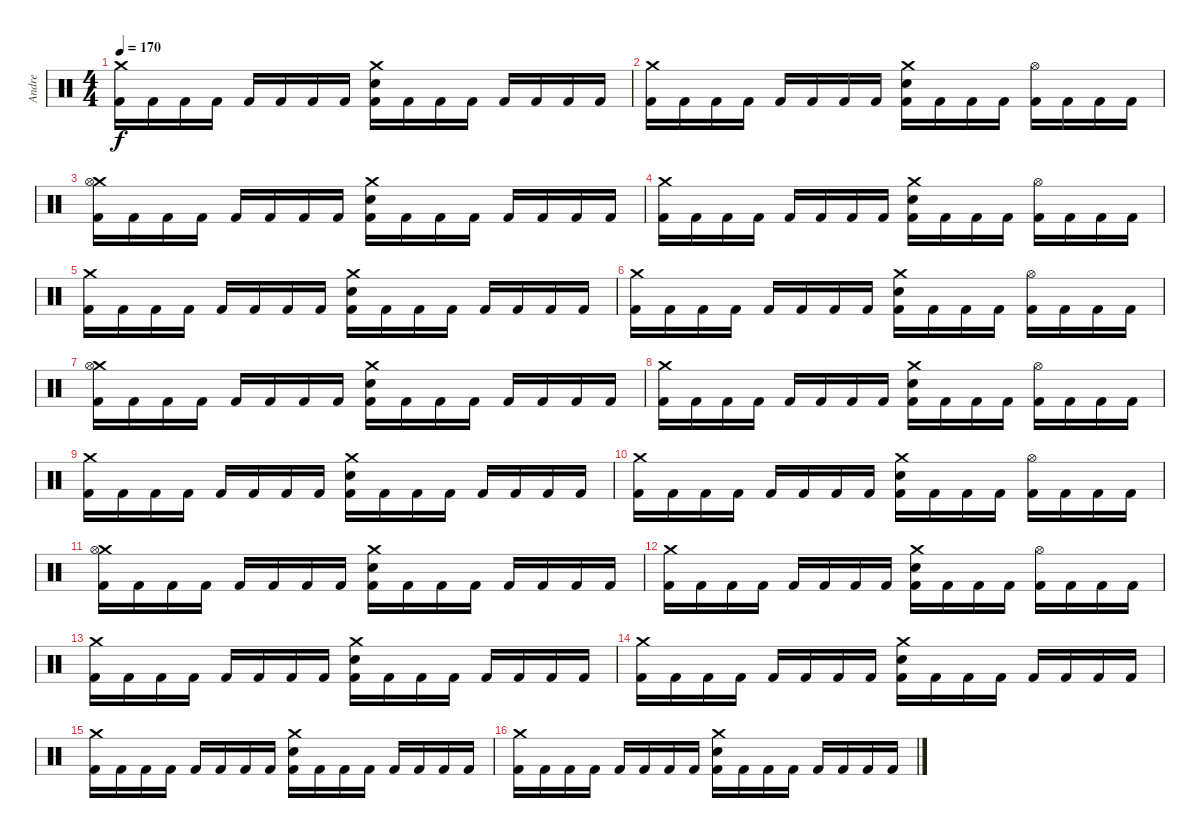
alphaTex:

\track ("Andre" "Andre") {instrument percussion}
\staff {score}
\articulation defaults
\ts (4 4)
\tempo 170
\clef neutral
\ks c
("Crash medium (hit)" "Kick (hit) 2").16{dy f} "Kick (hit) 2".16 "Kick (hit) 2".16 "Kick (hit) 2".16 "Kick (hit) 2".16 "Kick (hit) 2".16 "Kick (hit) 2".16 "Kick (hit) 2".16 ("Crash medium (hit)" "Snare (hit) 2" "Kick (hit) 2").16 "Kick (hit) 2".16 "Kick (hit) 2".16 "Kick (hit) 2".16 "Kick (hit) 2".16 "Kick (hit) 2".16 "Kick (hit) 2".16 "Kick (hit) 2".16 |
("Crash medium (hit)" "Kick (hit) 2").16 "Kick (hit) 2".16 "Kick (hit) 2".16 "Kick (hit) 2".16 "Kick (hit) 2".16 "Kick (hit) 2".16 "Kick (hit) 2".16 "Kick (hit) 2".16 ("Crash medium (hit)" "Snare (hit) 2" "Kick (hit) 2").16 "Kick (hit) 2".16 "Kick (hit) 2".16 "Kick (hit) 2".16 ("Hi-Hat (open)" "Kick (hit) 2").16 "Kick (hit) 2".16 "Kick (hit) 2".16 "Kick (hit) 2".16 |
("Crash medium (hit)" "Hi-Hat (open)" "Kick (hit) 2").16 "Kick (hit) 2".16 "Kick (hit) 2".16 "Kick (hit) 2".16 "Kick (hit) 2".16 "Kick (hit) 2".16 "Kick (hit) 2".16 "Kick (hit) 2".16 ("Crash medium (hit)" "Snare (hit) 2" "Kick (hit) 2").16 "Kick (hit) 2".16 "Kick (hit) 2".16 "Kick (hit) 2".16 "Kick (hit) 2".16 "Kick (hit) 2".16 "Kick (hit) 2".16 "Kick (hit) 2".16 |
("Crash medium (hit)" "Kick (hit) 2").16 "Kick (hit) 2".16 "Kick (hit) 2".16 "Kick (hit) 2".16 "Kick (hit) 2".16 "Kick (hit) 2".16 "Kick (hit) 2".16 "Kick (hit) 2".16 ("Crash medium (hit)" "Snare (hit) 2" "Kick (hit) 2").16 "Kick (hit) 2".16 "Kick (hit) 2".16 "Kick (hit) 2".16 ("Hi-Hat (open)" "Kick (hit) 2").16 "Kick (hit) 2".16 "Kick (hit) 2".16 "Kick (hit) 2".16 |
("Crash medium (hit)" "Kick (hit) 2").16 "Kick (hit) 2".16 "Kick (hit) 2".16 "Kick (hit) 2".16 "Kick (hit) 2".16 "Kick (hit) 2".16 "Kick (hit) 2".16 "Kick (hit) 2".16 ("Crash medium (hit)" "Snare (hit) 2" "Kick (hit) 2").16 "Kick (hit) 2".16 "Kick (hit) 2".16 "Kick (hit) 2".16 "Kick (hit) 2".16 "Kick (hit) 2".16 "Kick (hit) 2".16 "Kick (hit) 2".16 |
("Crash medium (hit)" "Kick (hit) 2").16 "Kick (hit) 2".16 "Kick (hit) 2".16 "Kick (hit) 2".16 "Kick (hit) 2".16 "Kick (hit) 2".16 "Kick (hit) 2".16 "Kick (hit) 2".16 ("Crash medium (hit)" "Snare (hit) 2" "Kick (hit) 2").16 "Kick (hit) 2".16 "Kick (hit) 2".16 "Kick (hit) 2".16 ("Hi-Hat (open)" "Kick (hit) 2").16 "Kick (hit) 2".16 "Kick (hit) 2".16 "Kick (hit) 2".16 |
("Crash medium (hit)" "Hi-Hat (open)" "Kick (hit) 2").16 "Kick (hit) 2".16 "Kick (hit) 2".16 "Kick (hit) 2".16 "Kick (hit) 2".16 "Kick (hit) 2".16 "Kick (hit) 2".16 "Kick (hit) 2".16 ("Crash medium (hit)" "Snare (hit) 2" "Kick (hit) 2").16 "Kick (hit) 2".16 "Kick (hit) 2".16 "Kick (hit) 2".16 "Kick (hit) 2".16 "Kick (hit) 2".16 "Kick (hit) 2".16 "Kick (hit) 2".16 |
("Crash medium (hit)" "Kick (hit) 2").16 "Kick (hit) 2".16 "Kick (hit) 2".16 "Kick (hit) 2".16 "Kick (hit) 2".16 "Kick (hit) 2".16 "Kick (hit) 2".16 "Kick (hit) 2".16 ("Crash medium (hit)" "Snare (hit) 2" "Kick (hit) 2").16 "Kick (hit) 2".16 "Kick (hit) 2".16 "Kick (hit) 2".16 ("Hi-Hat (open)" "Kick (hit) 2").16 "Kick (hit) 2".16 "Kick (hit) 2".16 "Kick (hit) 2".16 |
("Crash medium (hit)" "Kick (hit) 2").16 "Kick (hit) 2".16 "Kick (hit) 2".16 "Kick (hit) 2".16 "Kick (hit) 2".16 "Kick (hit) 2".16 "Kick (hit) 2".16 "Kick (hit) 2".16 ("Crash medium (hit)" "Snare (hit) 2" "Kick (hit) 2").16 "Kick (hit) 2".16 "Kick (hit) 2".16 "Kick (hit) 2".16 "Kick (hit) 2".16 "Kick (hit) 2".16 "Kick (hit) 2".16 "Kick (hit) 2".16 |
("Crash medium (hit)" "Kick (hit) 2").16 "Kick (hit) 2".16 "Kick (hit) 2".16 "Kick (hit) 2".16 "Kick (hit) 2".16 "Kick (hit) 2".16 "Kick (hit) 2".16 "Kick (hit) 2".16 ("Crash medium (hit)" "Snare (hit) 2" "Kick (hit) 2").16 "Kick (hit) 2".16 "Kick (hit) 2".16 "Kick (hit) 2".16 ("Hi-Hat (open)" "Kick (hit) 2").16 "Kick (hit) 2".16 "Kick (hit) 2".16 "Kick (hit) 2".16 |
("Crash medium (hit)" "Hi-Hat (open)" "Kick (hit) 2").16 "Kick (hit) 2".16 "Kick (hit) 2".16 "Kick (hit) 2".16 "Kick (hit) 2".16 "Kick (hit) 2".16 "Kick (hit) 2".16 "Kick (hit) 2".16 ("Crash medium (hit)" "Snare (hit) 2" "Kick (hit) 2").16 "Kick (hit) 2".16 "Kick (hit) 2".16 "Kick (hit) 2".16 "Kick (hit) 2".16 "Kick (hit) 2".16 "Kick (hit) 2".16 "Kick (hit) 2".16 |
("Crash medium (hit)" "Kick (hit) 2").16 "Kick (hit) 2".16 "Kick (hit) 2".16 "Kick (hit) 2".16 "Kick (hit) 2".16 "Kick (hit) 2".16 "Kick (hit) 2".16 "Kick (hit) 2".16 ("Crash medium (hit)" "Snare (hit) 2" "Kick (hit) 2").16 "Kick (hit) 2".16 "Kick (hit) 2".16 "Kick (hit) 2".16 ("Hi-Hat (open)" "Kick (hit) 2").16 "Kick (hit) 2".16 "Kick (hit) 2".16 "Kick (hit) 2".16 |
("Crash medium (hit)" "Kick (hit) 2").16 "Kick (hit) 2".16 "Kick (hit) 2".16 "Kick (hit) 2".16 "Kick (hit) 2".16 "Kick (hit) 2".16 "Kick (hit) 2".16 "Kick (hit) 2".16 ("Crash medium (hit)" "Snare (hit) 2" "Kick (hit) 2").16 "Kick (hit) 2".16 "Kick (hit) 2".16 "Kick (hit) 2".16 "Kick (hit) 2".16 "Kick (hit) 2".16 "Kick (hit) 2".16 "Kick (hit) 2".16 |
("Crash medium (hit)" "Kick (hit) 2").16 "Kick (hit) 2".16 "Kick (hit) 2".16 "Kick (hit) 2".16 "Kick (hit) 2".16 "Kick (hit) 2".16 "Kick (hit) 2".16 "Kick (hit) 2".16 ("Crash medium (hit)" "Snare (hit) 2" "Kick (hit) 2").16 "Kick (hit) 2".16 "Kick (hit) 2".16 "Kick (hit) 2".16 "Kick (hit) 2".16 "Kick (hit) 2".16 "Kick (hit) 2".16 "Kick (hit) 2".16 |
("Crash medium (hit)" "Kick (hit) 2").16 "Kick (hit) 2".16 "Kick (hit) 2".16 "Kick (hit) 2".16 "Kick (hit) 2".16 "Kick (hit) 2".16 "Kick (hit) 2".16 "Kick (hit) 2".16 ("Crash medium (hit)" "Snare (hit) 2" "Kick (hit) 2").16 "Kick (hit) 2".16 "Kick (hit) 2".16 "Kick (hit) 2".16 "Kick (hit) 2".16 "Kick (hit) 2".16 "Kick (hit) 2".16 "Kick (hit) 2".16 |
("Crash medium (hit)" "Kick (hit) 2").16 "Kick (hit) 2".16 "Kick (hit) 2".16 "Kick (hit) 2".16 "Kick (hit) 2".16 "Kick (hit) 2".16 "Kick (hit) 2".16 "Kick (hit) 2".16 ("Crash medium (hit)" "Snare (hit) 2" "Kick (hit) 2").16 "Kick (hit) 2".16 "Kick (hit) 2".16 "Kick (hit) 2".16 "Kick (hit) 2".16 "Kick (hit) 2".16 "Kick (hit) 2".16 "Kick (hit) 2".16
